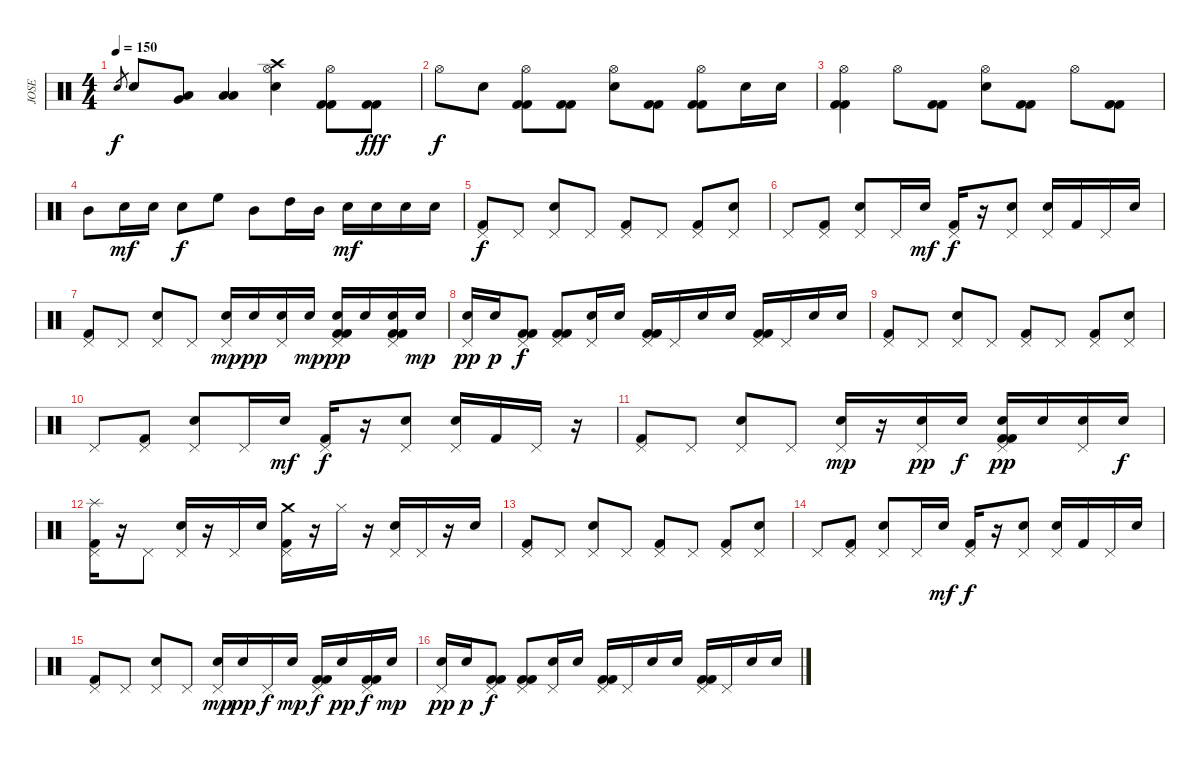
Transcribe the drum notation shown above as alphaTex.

\track ("JOSE" "JOSE") {instrument percussion}
\staff {score}
\articulation defaults
\ts (4 4)
\tempo 150
\clef neutral
\ks c "Electric Snare (hit)".8{gr dy f} "Electric Snare (hit)".8
("Very Low Tom (hit)" "Low Tom (hit)").8 ("Low Floor Tom (hit)" "Low Tom (hit)").4 ("Hi-Hat (open)" "Crash high (hit)" "Electric Snare (hit)").4 ("Hi-Hat (open)" "Kick (hit) 2" "Kick (hit) 2").8 ("Kick (hit) 2" "Kick (hit) 2").8{dy fff} |
"Hi-Hat (open)".8{dy f} "Electric Snare (hit)".8 ("Hi-Hat (open)" "Kick (hit) 2" "Kick (hit) 2").8 ("Kick (hit) 2" "Kick (hit) 2").8 ("Hi-Hat (open)" "Electric Snare (hit)").8 ("Kick (hit) 2" "Kick (hit) 2").8 ("Hi-Hat (open)" "Kick (hit) 2" "Kick (hit) 2").8 "Electric Snare (hit)".16 "Electric Snare (hit)".16 |
("Hi-Hat (open)" "Kick (hit) 2" "Kick (hit) 2").4 "Hi-Hat (open)".8 ("Kick (hit) 2" "Kick (hit) 2").8 ("Hi-Hat (open)" "Electric Snare (hit)").8 ("Kick (hit) 2" "Kick (hit) 2").8 "Hi-Hat (open)".8 ("Kick (hit) 2" "Kick (hit) 2").8 |
"Mid Tom (hit)".8 "Electric Snare (hit)".16{dy mf} "Electric Snare (hit)".16 "Electric Snare (hit)".8{dy f} "High Floor Tom (hit)".8 "Mid Tom (hit)".8 "High Tom (hit)".16 "Mid Tom (hit)".16 "Electric Snare (hit)".16{dy mf} "Electric Snare (hit)".16 "Electric Snare (hit)".16 "Electric Snare (hit)".16 |
("Pedal Hi-Hat (hit)" "Kick (hit) 2").8{dy f} "Pedal Hi-Hat (hit)".8 ("Pedal Hi-Hat (hit)" "Electric Snare (hit)").8 "Pedal Hi-Hat (hit)".8 ("Pedal Hi-Hat (hit)" "Kick (hit) 2").8 "Pedal Hi-Hat (hit)".8 ("Pedal Hi-Hat (hit)" "Kick (hit) 2").8 ("Pedal Hi-Hat (hit)" "Electric Snare (hit)").8 |
"Pedal Hi-Hat (hit)".8 ("Pedal Hi-Hat (hit)" "Kick (hit) 2").8 ("Pedal Hi-Hat (hit)" "Electric Snare (hit)").8 "Pedal Hi-Hat (hit)".16 "Electric Snare (hit)".16{dy mf} ("Pedal Hi-Hat (hit)" "Kick (hit) 2").16{dy f} r.16 ("Pedal Hi-Hat (hit)" "Electric Snare (hit)").8 ("Pedal Hi-Hat (hit)" "Electric Snare (hit)").16 "Kick (hit) 2".16 "Pedal Hi-Hat (hit)".16 "Electric Snare (hit)".16 |
("Pedal Hi-Hat (hit)" "Kick (hit) 2").8 "Pedal Hi-Hat (hit)".8 ("Pedal Hi-Hat (hit)" "Electric Snare (hit)").8 "Pedal Hi-Hat (hit)".8 ("Pedal Hi-Hat (hit)" "Electric Snare (hit)").16{dy mp} "Electric Snare (hit)".16{dy pp} ("Pedal Hi-Hat (hit)" "Electric Snare (hit)").16 "Electric Snare (hit)".16{dy mp} ("Pedal Hi-Hat (hit)" "Electric Snare (hit)" "Kick (hit) 2" "Kick (hit) 2").16{dy pp} "Electric Snare (hit)".16 ("Pedal Hi-Hat (hit)" "Electric Snare (hit)" "Kick (hit) 2" "Kick (hit) 2").16 "Electric Snare (hit)".16{dy mp} |
("Pedal Hi-Hat (hit)" "Electric Snare (hit)").16{dy pp} "Electric Snare (hit)".16{dy p} ("Pedal Hi-Hat (hit)" "Kick (hit) 2" "Kick (hit) 2").8{dy f} ("Pedal Hi-Hat (hit)" "Kick (hit) 2" "Kick (hit) 2").8 ("Pedal Hi-Hat (hit)" "Electric Snare (hit)").16 "Electric Snare (hit)".16 ("Pedal Hi-Hat (hit)" "Kick (hit) 2" "Kick (hit) 2").16 "Pedal Hi-Hat (hit)".16 "Electric Snare (hit)".16 "Electric Snare (hit)".16 ("Pedal Hi-Hat (hit)" "Kick (hit) 2" "Kick (hit) 2").16 "Pedal Hi-Hat (hit)".16 "Electric Snare (hit)".16 "Electric Snare (hit)".16 |
("Pedal Hi-Hat (hit)" "Kick (hit) 2").8 "Pedal Hi-Hat (hit)".8 ("Pedal Hi-Hat (hit)" "Electric Snare (hit)").8 "Pedal Hi-Hat (hit)".8 ("Pedal Hi-Hat (hit)" "Kick (hit) 2").8 "Pedal Hi-Hat (hit)".8 ("Pedal Hi-Hat (hit)" "Kick (hit) 2").8 ("Pedal Hi-Hat (hit)" "Electric Snare (hit)").8 |
"Pedal Hi-Hat (hit)".8 ("Pedal Hi-Hat (hit)" "Kick (hit) 2").8 ("Pedal Hi-Hat (hit)" "Electric Snare (hit)").8 "Pedal Hi-Hat (hit)".16 "Electric Snare (hit)".16{dy mf} ("Pedal Hi-Hat (hit)" "Kick (hit) 2").16{dy f} r.16 ("Pedal Hi-Hat (hit)" "Electric Snare (hit)").8 ("Pedal Hi-Hat (hit)" "Electric Snare (hit)").16 "Kick (hit) 2".16 "Pedal Hi-Hat (hit)".16 r.16 |
("Pedal Hi-Hat (hit)" "Kick (hit) 2").8 "Pedal Hi-Hat (hit)".8 ("Pedal Hi-Hat (hit)" "Electric Snare (hit)").8 "Pedal Hi-Hat (hit)".8 ("Pedal Hi-Hat (hit)" "Electric Snare (hit)").16{dy mp} r.16 ("Pedal Hi-Hat (hit)" "Electric Snare (hit)").16{dy pp} "Electric Snare (hit)".16{dy f} ("Pedal Hi-Hat (hit)" "Electric Snare (hit)" "Kick (hit) 2" "Kick (hit) 2").16{dy pp} "Electric Snare (hit)".16 ("Pedal Hi-Hat (hit)" "Electric Snare (hit)").16 "Electric Snare (hit)".16{dy f} |
("Pedal Hi-Hat (hit)" "Splash (hit)" "Kick (hit) 2").16 r.16 "Pedal Hi-Hat (hit)".8 ("Pedal Hi-Hat (hit)" "Electric Snare (hit)").16 r.16 "Pedal Hi-Hat (hit)".16 "Electric Snare (hit)".16 ("Pedal Hi-Hat (hit)" "Crash medium (hit)" "Kick (hit) 2").16 r.16 "Hi-Hat (closed)".16 r.16 ("Pedal Hi-Hat (hit)" "Electric Snare (hit)").16 "Pedal Hi-Hat (hit)".16 r.16 "Electric Snare (hit)".16 |
("Pedal Hi-Hat (hit)" "Kick (hit) 2").8 "Pedal Hi-Hat (hit)".8 ("Pedal Hi-Hat (hit)" "Electric Snare (hit)").8 "Pedal Hi-Hat (hit)".8 ("Pedal Hi-Hat (hit)" "Kick (hit) 2").8 "Pedal Hi-Hat (hit)".8 ("Pedal Hi-Hat (hit)" "Kick (hit) 2").8 ("Pedal Hi-Hat (hit)" "Electric Snare (hit)").8 |
"Pedal Hi-Hat (hit)".8 ("Pedal Hi-Hat (hit)" "Kick (hit) 2").8 ("Pedal Hi-Hat (hit)" "Electric Snare (hit)").8 "Pedal Hi-Hat (hit)".16 "Electric Snare (hit)".16{dy mf} ("Pedal Hi-Hat (hit)" "Kick (hit) 2").16{dy f} r.16 ("Pedal Hi-Hat (hit)" "Electric Snare (hit)").8 ("Pedal Hi-Hat (hit)" "Electric Snare (hit)").16 "Kick (hit) 2".16 "Pedal Hi-Hat (hit)".16 "Electric Snare (hit)".16 |
("Pedal Hi-Hat (hit)" "Kick (hit) 2").8 "Pedal Hi-Hat (hit)".8 ("Pedal Hi-Hat (hit)" "Electric Snare (hit)").8 "Pedal Hi-Hat (hit)".8 ("Pedal Hi-Hat (hit)" "Electric Snare (hit)").16{dy mp} "Electric Snare (hit)".16{dy pp} "Pedal Hi-Hat (hit)".16{dy f} "Electric Snare (hit)".16{dy mp} ("Pedal Hi-Hat (hit)" "Kick (hit) 2" "Kick (hit) 2").16{dy f} "Electric Snare (hit)".16{dy pp} ("Pedal Hi-Hat (hit)" "Kick (hit) 2" "Kick (hit) 2").16{dy f} "Electric Snare (hit)".16{dy mp} |
("Pedal Hi-Hat (hit)" "Electric Snare (hit)").16{dy pp} "Electric Snare (hit)".16{dy p} ("Pedal Hi-Hat (hit)" "Kick (hit) 2" "Kick (hit) 2").8{dy f} ("Pedal Hi-Hat (hit)" "Kick (hit) 2" "Kick (hit) 2").8 ("Pedal Hi-Hat (hit)" "Electric Snare (hit)").16 "Electric Snare (hit)".16 ("Pedal Hi-Hat (hit)" "Kick (hit) 2" "Kick (hit) 2").16 "Pedal Hi-Hat (hit)".16 "Electric Snare (hit)".16 "Electric Snare (hit)".16 ("Pedal Hi-Hat (hit)" "Kick (hit) 2" "Kick (hit) 2").16 "Pedal Hi-Hat (hit)".16 "Electric Snare (hit)".16 "Electric Snare (hit)".16
